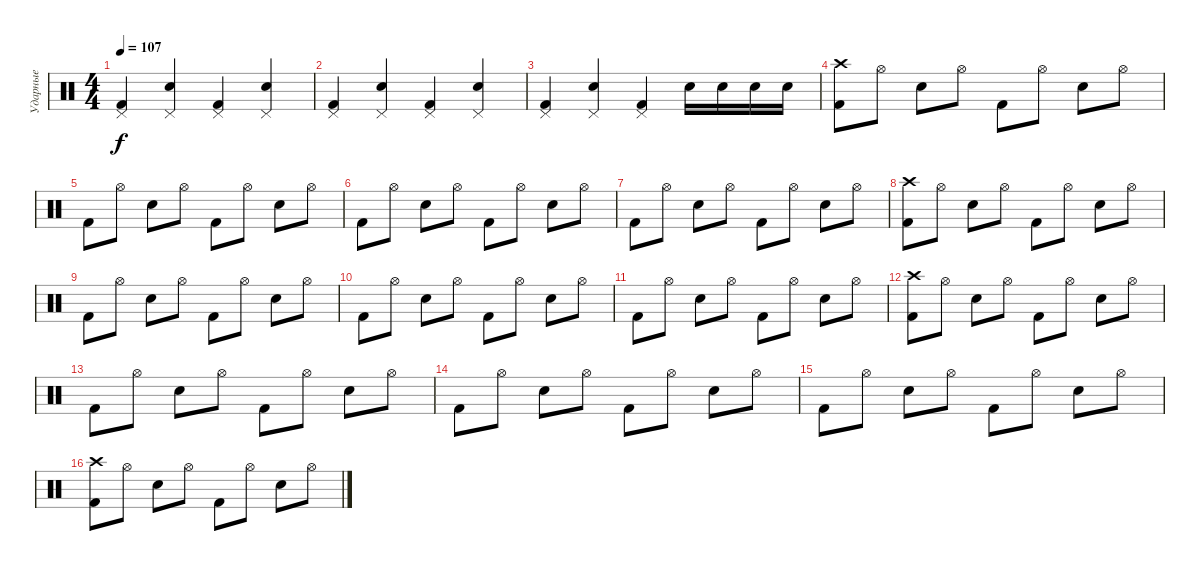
\track ("Ударные" "Ударные") {instrument percussion}
\staff {score}
\articulation defaults
\ts (4 4)
\tempo 107
\clef neutral
\ks c
("Pedal Hi-Hat (hit)" "Kick (hit) 2").4{dy f} ("Pedal Hi-Hat (hit)" "Snare (hit) 2").4 ("Pedal Hi-Hat (hit)" "Kick (hit) 2").4 ("Pedal Hi-Hat (hit)" "Snare (hit) 2").4 |
("Pedal Hi-Hat (hit)" "Kick (hit) 2").4 ("Pedal Hi-Hat (hit)" "Snare (hit) 2").4 ("Pedal Hi-Hat (hit)" "Kick (hit) 2").4 ("Pedal Hi-Hat (hit)" "Snare (hit) 2").4 |
("Pedal Hi-Hat (hit)" "Kick (hit) 2").4 ("Pedal Hi-Hat (hit)" "Snare (hit) 2").4 ("Pedal Hi-Hat (hit)" "Kick (hit) 2").4 "Snare (hit) 2".16 "Snare (hit) 2".16 "Snare (hit) 2".16 "Snare (hit) 2".16 |
("Kick (hit) 2" "Crash high (hit)").8 "Hi-Hat (open)".8 "Snare (hit) 2".8 "Hi-Hat (open)".8 "Kick (hit) 2".8 "Hi-Hat (open)".8 "Snare (hit) 2".8 "Hi-Hat (open)".8 |
"Kick (hit) 2".8 "Hi-Hat (open)".8 "Snare (hit) 2".8 "Hi-Hat (open)".8 "Kick (hit) 2".8 "Hi-Hat (open)".8 "Snare (hit) 2".8 "Hi-Hat (open)".8 |
"Kick (hit) 2".8 "Hi-Hat (open)".8 "Snare (hit) 2".8 "Hi-Hat (open)".8 "Kick (hit) 2".8 "Hi-Hat (open)".8 "Snare (hit) 2".8 "Hi-Hat (open)".8 |
"Kick (hit) 2".8 "Hi-Hat (open)".8 "Snare (hit) 2".8 "Hi-Hat (open)".8 "Kick (hit) 2".8 "Hi-Hat (open)".8 "Snare (hit) 2".8 "Hi-Hat (open)".8 |
("Kick (hit) 2" "Crash high (hit)").8 "Hi-Hat (open)".8 "Snare (hit) 2".8 "Hi-Hat (open)".8 "Kick (hit) 2".8 "Hi-Hat (open)".8 "Snare (hit) 2".8 "Hi-Hat (open)".8 |
"Kick (hit) 2".8 "Hi-Hat (open)".8 "Snare (hit) 2".8 "Hi-Hat (open)".8 "Kick (hit) 2".8 "Hi-Hat (open)".8 "Snare (hit) 2".8 "Hi-Hat (open)".8 |
"Kick (hit) 2".8 "Hi-Hat (open)".8 "Snare (hit) 2".8 "Hi-Hat (open)".8 "Kick (hit) 2".8 "Hi-Hat (open)".8 "Snare (hit) 2".8 "Hi-Hat (open)".8 |
"Kick (hit) 2".8 "Hi-Hat (open)".8 "Snare (hit) 2".8 "Hi-Hat (open)".8 "Kick (hit) 2".8 "Hi-Hat (open)".8 "Snare (hit) 2".8 "Hi-Hat (open)".8 |
("Kick (hit) 2" "Crash high (hit)").8 "Hi-Hat (open)".8 "Snare (hit) 2".8 "Hi-Hat (open)".8 "Kick (hit) 2".8 "Hi-Hat (open)".8 "Snare (hit) 2".8 "Hi-Hat (open)".8 |
"Kick (hit) 2".8 "Hi-Hat (open)".8 "Snare (hit) 2".8 "Hi-Hat (open)".8 "Kick (hit) 2".8 "Hi-Hat (open)".8 "Snare (hit) 2".8 "Hi-Hat (open)".8 |
"Kick (hit) 2".8 "Hi-Hat (open)".8 "Snare (hit) 2".8 "Hi-Hat (open)".8 "Kick (hit) 2".8 "Hi-Hat (open)".8 "Snare (hit) 2".8 "Hi-Hat (open)".8 |
"Kick (hit) 2".8 "Hi-Hat (open)".8 "Snare (hit) 2".8 "Hi-Hat (open)".8 "Kick (hit) 2".8 "Hi-Hat (open)".8 "Snare (hit) 2".8 "Hi-Hat (open)".8 |
("Kick (hit) 2" "Crash high (hit)").8 "Hi-Hat (open)".8 "Snare (hit) 2".8 "Hi-Hat (open)".8 "Kick (hit) 2".8 "Hi-Hat (open)".8 "Snare (hit) 2".8 "Hi-Hat (open)".8
